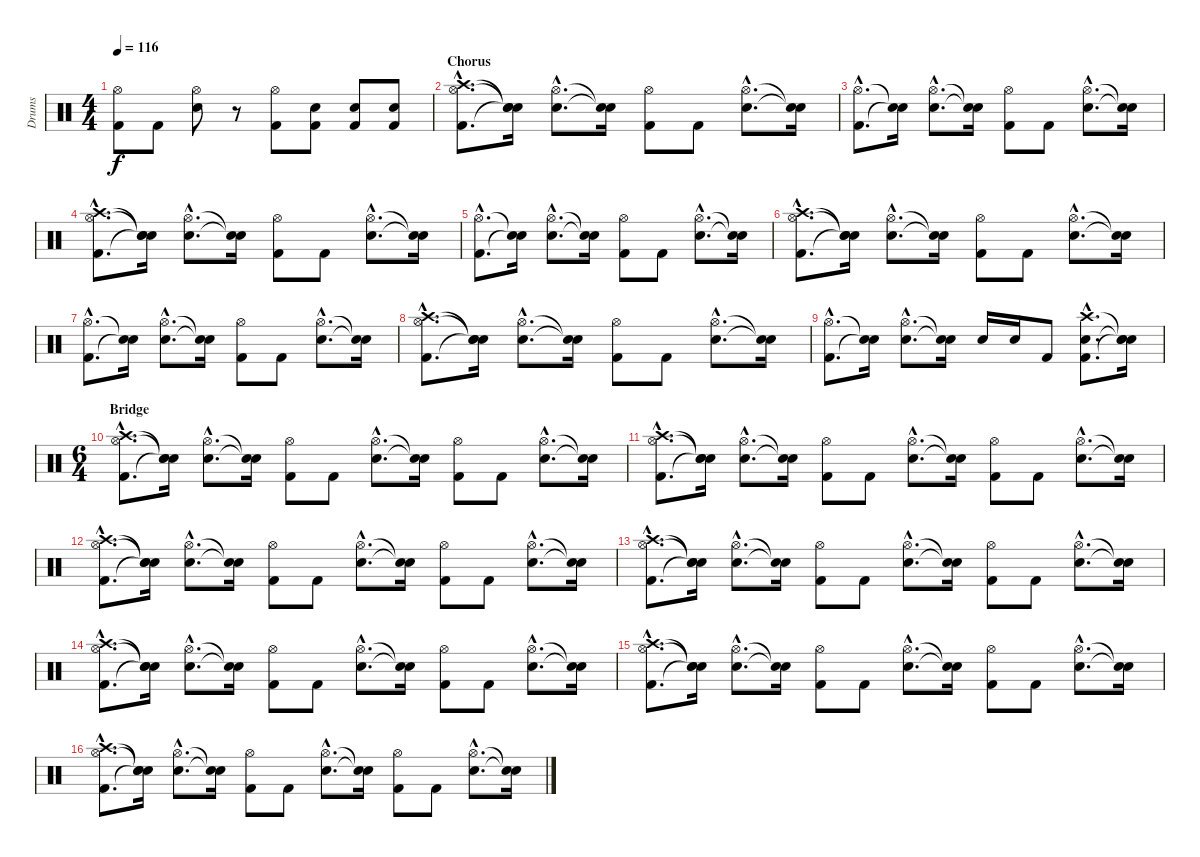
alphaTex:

\track ("Drums" "Drums") {instrument percussion}
\staff {score}
\articulation defaults
\ts (4 4)
\tempo 116
\clef neutral
\ks c
("Kick (hit) 2" "Hi-Hat (open)").8{dy f} "Kick (hit) 2".8 ("Snare (hit) 2" "Hi-Hat (open)").8 r.8 ("Kick (hit) 2" "Hi-Hat (open)").8 ("Kick (hit) 2" "Snare (hit) 2").8 ("Kick (hit) 2" "Snare (hit) 2").8 ("Kick (hit) 2" "Snare (hit) 2").8 |
\section ("" "Chorus")
("Kick (hit) 2"{hac} "Hi-Hat (open)"{hac} "Crash high (hit)"{hac}).8{d} ("Snare (hit)"{t} "Snare (hit)"{t} "Snare (hit)"{t}).16 ("Snare (hit) 2"{hac} "Hi-Hat (open)"{hac}).8{d} ("Snare (hit)"{t} "Snare (hit)"{t}).16 ("Kick (hit) 2" "Hi-Hat (open)").8 "Kick (hit) 2".8 ("Snare (hit) 2"{hac} "Hi-Hat (open)"{hac}).8{d} ("Snare (hit)"{t} "Snare (hit)"{t}).16 |
("Kick (hit) 2"{hac} "Hi-Hat (open)"{hac}).8{d} ("Snare (hit)"{t} "Snare (hit)"{t}).16 ("Snare (hit) 2"{hac} "Hi-Hat (open)"{hac}).8{d} ("Snare (hit)"{t} "Snare (hit)"{t}).16 ("Kick (hit) 2" "Hi-Hat (open)").8 "Kick (hit) 2".8 ("Snare (hit) 2"{hac} "Hi-Hat (open)"{hac}).8{d} ("Snare (hit)"{t} "Snare (hit)"{t}).16 |
("Kick (hit) 2"{hac} "Hi-Hat (open)"{hac} "Crash high (hit)"{hac}).8{d} ("Snare (hit)"{t} "Snare (hit)"{t} "Snare (hit)"{t}).16 ("Snare (hit) 2"{hac} "Hi-Hat (open)"{hac}).8{d} ("Snare (hit)"{t} "Snare (hit)"{t}).16 ("Kick (hit) 2" "Hi-Hat (open)").8 "Kick (hit) 2".8 ("Snare (hit) 2"{hac} "Hi-Hat (open)"{hac}).8{d} ("Snare (hit)"{t} "Snare (hit)"{t}).16 |
("Kick (hit) 2"{hac} "Hi-Hat (open)"{hac}).8{d} ("Snare (hit)"{t} "Snare (hit)"{t}).16 ("Snare (hit) 2"{hac} "Hi-Hat (open)"{hac}).8{d} ("Snare (hit)"{t} "Snare (hit)"{t}).16 ("Kick (hit) 2" "Hi-Hat (open)").8 "Kick (hit) 2".8 ("Snare (hit) 2"{hac} "Hi-Hat (open)"{hac}).8{d} ("Snare (hit)"{t} "Snare (hit)"{t}).16 |
("Kick (hit) 2"{hac} "Hi-Hat (open)"{hac} "Crash high (hit)"{hac}).8{d} ("Snare (hit)"{t} "Snare (hit)"{t} "Snare (hit)"{t}).16 ("Snare (hit) 2"{hac} "Hi-Hat (open)"{hac}).8{d} ("Snare (hit)"{t} "Snare (hit)"{t}).16 ("Kick (hit) 2" "Hi-Hat (open)").8 "Kick (hit) 2".8 ("Snare (hit) 2"{hac} "Hi-Hat (open)"{hac}).8{d} ("Snare (hit)"{t} "Snare (hit)"{t}).16 |
("Kick (hit) 2"{hac} "Hi-Hat (open)"{hac}).8{d} ("Snare (hit)"{t} "Snare (hit)"{t}).16 ("Snare (hit) 2"{hac} "Hi-Hat (open)"{hac}).8{d} ("Snare (hit)"{t} "Snare (hit)"{t}).16 ("Kick (hit) 2" "Hi-Hat (open)").8 "Kick (hit) 2".8 ("Snare (hit) 2"{hac} "Hi-Hat (open)"{hac}).8{d} ("Snare (hit)"{t} "Snare (hit)"{t}).16 |
("Kick (hit) 2"{hac} "Hi-Hat (open)"{hac} "Crash high (hit)"{hac}).8{d} ("Snare (hit)"{t} "Snare (hit)"{t} "Snare (hit)"{t}).16 ("Snare (hit) 2"{hac} "Hi-Hat (open)"{hac}).8{d} ("Snare (hit)"{t} "Snare (hit)"{t}).16 ("Kick (hit) 2" "Hi-Hat (open)").8 "Kick (hit) 2".8 ("Snare (hit) 2"{hac} "Hi-Hat (open)"{hac}).8{d} ("Snare (hit)"{t} "Snare (hit)"{t}).16 |
("Kick (hit) 2"{hac} "Hi-Hat (open)"{hac}).8{d} ("Snare (hit)"{t} "Snare (hit)"{t}).16 ("Snare (hit) 2"{hac} "Hi-Hat (open)"{hac}).8{d} ("Snare (hit)"{t} "Snare (hit)"{t}).16 "Snare (hit) 2".16 "Snare (hit) 2".16 "Kick (hit) 2".8 ("Kick (hit) 2"{hac} "Snare (hit) 2"{hac} "Crash high (hit)"{hac}).8{d} ("Snare (hit)"{t} "Snare (hit)"{t} "Snare (hit)"{t}).16 |
\ts (6 4)
\section ("" "Bridge")
("Kick (hit) 2"{hac} "Hi-Hat (open)"{hac} "Crash high (hit)"{hac}).8{d} ("Snare (hit)"{t} "Snare (hit)"{t} "Snare (hit)"{t}).16 ("Snare (hit) 2"{hac} "Hi-Hat (open)"{hac}).8{d} ("Snare (hit)"{t} "Snare (hit)"{t}).16 ("Kick (hit) 2" "Hi-Hat (open)").8 "Kick (hit) 2".8 ("Snare (hit) 2"{hac} "Hi-Hat (open)"{hac}).8{d} ("Snare (hit)"{t} "Snare (hit)"{t}).16 ("Kick (hit) 2" "Hi-Hat (open)").8 "Kick (hit) 2".8 ("Snare (hit) 2"{hac} "Hi-Hat (open)"{hac}).8{d} ("Snare (hit)"{t} "Snare (hit)"{t}).16 |
("Kick (hit) 2"{hac} "Hi-Hat (open)"{hac} "Crash high (hit)"{hac}).8{d} ("Snare (hit)"{t} "Snare (hit)"{t} "Snare (hit)"{t}).16 ("Snare (hit) 2"{hac} "Hi-Hat (open)"{hac}).8{d} ("Snare (hit)"{t} "Snare (hit)"{t}).16 ("Kick (hit) 2" "Hi-Hat (open)").8 "Kick (hit) 2".8 ("Snare (hit) 2"{hac} "Hi-Hat (open)"{hac}).8{d} ("Snare (hit)"{t} "Snare (hit)"{t}).16 ("Kick (hit) 2" "Hi-Hat (open)").8 "Kick (hit) 2".8 ("Snare (hit) 2"{hac} "Hi-Hat (open)"{hac}).8{d} ("Snare (hit)"{t} "Snare (hit)"{t}).16 |
("Kick (hit) 2"{hac} "Hi-Hat (open)"{hac} "Crash high (hit)"{hac}).8{d} ("Snare (hit)"{t} "Snare (hit)"{t} "Snare (hit)"{t}).16 ("Snare (hit) 2"{hac} "Hi-Hat (open)"{hac}).8{d} ("Snare (hit)"{t} "Snare (hit)"{t}).16 ("Kick (hit) 2" "Hi-Hat (open)").8 "Kick (hit) 2".8 ("Snare (hit) 2"{hac} "Hi-Hat (open)"{hac}).8{d} ("Snare (hit)"{t} "Snare (hit)"{t}).16 ("Kick (hit) 2" "Hi-Hat (open)").8 "Kick (hit) 2".8 ("Snare (hit) 2"{hac} "Hi-Hat (open)"{hac}).8{d} ("Snare (hit)"{t} "Snare (hit)"{t}).16 |
("Kick (hit) 2"{hac} "Hi-Hat (open)"{hac} "Crash high (hit)"{hac}).8{d} ("Snare (hit)"{t} "Snare (hit)"{t} "Snare (hit)"{t}).16 ("Snare (hit) 2"{hac} "Hi-Hat (open)"{hac}).8{d} ("Snare (hit)"{t} "Snare (hit)"{t}).16 ("Kick (hit) 2" "Hi-Hat (open)").8 "Kick (hit) 2".8 ("Snare (hit) 2"{hac} "Hi-Hat (open)"{hac}).8{d} ("Snare (hit)"{t} "Snare (hit)"{t}).16 ("Kick (hit) 2" "Hi-Hat (open)").8 "Kick (hit) 2".8 ("Snare (hit) 2"{hac} "Hi-Hat (open)"{hac}).8{d} ("Snare (hit)"{t} "Snare (hit)"{t}).16 |
("Kick (hit) 2"{hac} "Hi-Hat (open)"{hac} "Crash high (hit)"{hac}).8{d} ("Snare (hit)"{t} "Snare (hit)"{t} "Snare (hit)"{t}).16 ("Snare (hit) 2"{hac} "Hi-Hat (open)"{hac}).8{d} ("Snare (hit)"{t} "Snare (hit)"{t}).16 ("Kick (hit) 2" "Hi-Hat (open)").8 "Kick (hit) 2".8 ("Snare (hit) 2"{hac} "Hi-Hat (open)"{hac}).8{d} ("Snare (hit)"{t} "Snare (hit)"{t}).16 ("Kick (hit) 2" "Hi-Hat (open)").8 "Kick (hit) 2".8 ("Snare (hit) 2"{hac} "Hi-Hat (open)"{hac}).8{d} ("Snare (hit)"{t} "Snare (hit)"{t}).16 |
("Kick (hit) 2"{hac} "Hi-Hat (open)"{hac} "Crash high (hit)"{hac}).8{d} ("Snare (hit)"{t} "Snare (hit)"{t} "Snare (hit)"{t}).16 ("Snare (hit) 2"{hac} "Hi-Hat (open)"{hac}).8{d} ("Snare (hit)"{t} "Snare (hit)"{t}).16 ("Kick (hit) 2" "Hi-Hat (open)").8 "Kick (hit) 2".8 ("Snare (hit) 2"{hac} "Hi-Hat (open)"{hac}).8{d} ("Snare (hit)"{t} "Snare (hit)"{t}).16 ("Kick (hit) 2" "Hi-Hat (open)").8 "Kick (hit) 2".8 ("Snare (hit) 2"{hac} "Hi-Hat (open)"{hac}).8{d} ("Snare (hit)"{t} "Snare (hit)"{t}).16 |
("Kick (hit) 2"{hac} "Hi-Hat (open)"{hac} "Crash high (hit)"{hac}).8{d} ("Snare (hit)"{t} "Snare (hit)"{t} "Snare (hit)"{t}).16 ("Snare (hit) 2"{hac} "Hi-Hat (open)"{hac}).8{d} ("Snare (hit)"{t} "Snare (hit)"{t}).16 ("Kick (hit) 2" "Hi-Hat (open)").8 "Kick (hit) 2".8 ("Snare (hit) 2"{hac} "Hi-Hat (open)"{hac}).8{d} ("Snare (hit)"{t} "Snare (hit)"{t}).16 ("Kick (hit) 2" "Hi-Hat (open)").8 "Kick (hit) 2".8 ("Snare (hit) 2"{hac} "Hi-Hat (open)"{hac}).8{d} ("Snare (hit)"{t} "Snare (hit)"{t}).16
